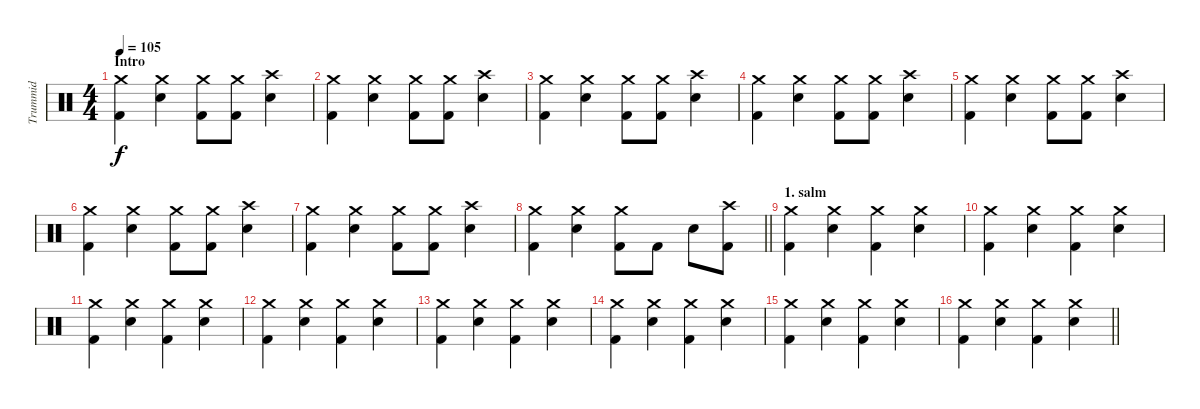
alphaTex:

\track ("Trummid" "Trummid") {instrument percussion}
\staff {score}
\articulation defaults
\ts (4 4)
\section ("" "Intro")
\tempo 105
\clef neutral
\ks c
("Crash medium (hit)" "Kick (hit) 2").4{dy f} ("Crash medium (hit)" "Electric Snare (hit)").4 ("Crash medium (hit)" "Kick (hit) 2").8 ("Crash medium (hit)" "Kick (hit) 2").8 ("Crash high (hit)" "Electric Snare (hit)").4 |
("Crash medium (hit)" "Kick (hit) 2").4 ("Crash medium (hit)" "Electric Snare (hit)").4 ("Crash medium (hit)" "Kick (hit) 2").8 ("Crash medium (hit)" "Kick (hit) 2").8 ("Crash high (hit)" "Electric Snare (hit)").4 |
("Crash medium (hit)" "Kick (hit) 2").4 ("Crash medium (hit)" "Electric Snare (hit)").4 ("Crash medium (hit)" "Kick (hit) 2").8 ("Crash medium (hit)" "Kick (hit) 2").8 ("Crash high (hit)" "Electric Snare (hit)").4 |
("Crash medium (hit)" "Kick (hit) 2").4 ("Crash medium (hit)" "Electric Snare (hit)").4 ("Crash medium (hit)" "Kick (hit) 2").8 ("Crash medium (hit)" "Kick (hit) 2").8 ("Crash high (hit)" "Electric Snare (hit)").4 |
("Crash medium (hit)" "Kick (hit) 2").4 ("Crash medium (hit)" "Electric Snare (hit)").4 ("Crash medium (hit)" "Kick (hit) 2").8 ("Crash medium (hit)" "Kick (hit) 2").8 ("Crash high (hit)" "Electric Snare (hit)").4 |
("Crash medium (hit)" "Kick (hit) 2").4 ("Crash medium (hit)" "Electric Snare (hit)").4 ("Crash medium (hit)" "Kick (hit) 2").8 ("Crash medium (hit)" "Kick (hit) 2").8 ("Crash high (hit)" "Electric Snare (hit)").4 |
("Crash medium (hit)" "Kick (hit) 2").4 ("Crash medium (hit)" "Electric Snare (hit)").4 ("Crash medium (hit)" "Kick (hit) 2").8 ("Crash medium (hit)" "Kick (hit) 2").8 ("Crash high (hit)" "Electric Snare (hit)").4 |
\barLineRight lightlight
("Crash medium (hit)" "Kick (hit) 2").4 ("Crash medium (hit)" "Electric Snare (hit)").4 ("Crash medium (hit)" "Kick (hit) 2").8 "Kick (hit) 2".8 "Electric Snare (hit)".8 ("Crash high (hit)" "Kick (hit) 2").8 |
\section ("" "1. salm")
("Crash medium (hit)" "Kick (hit) 2").4 ("Crash medium (hit)" "Electric Snare (hit)").4 ("Crash medium (hit)" "Kick (hit) 2").4 ("Crash medium (hit)" "Electric Snare (hit)").4 |
("Crash medium (hit)" "Kick (hit) 2").4 ("Crash medium (hit)" "Electric Snare (hit)").4 ("Crash medium (hit)" "Kick (hit) 2").4 ("Crash medium (hit)" "Electric Snare (hit)").4 |
("Crash medium (hit)" "Kick (hit) 2").4 ("Crash medium (hit)" "Electric Snare (hit)").4 ("Crash medium (hit)" "Kick (hit) 2").4 ("Crash medium (hit)" "Electric Snare (hit)").4 |
("Crash medium (hit)" "Kick (hit) 2").4 ("Crash medium (hit)" "Electric Snare (hit)").4 ("Crash medium (hit)" "Kick (hit) 2").4 ("Crash medium (hit)" "Electric Snare (hit)").4 |
("Crash medium (hit)" "Kick (hit) 2").4 ("Crash medium (hit)" "Electric Snare (hit)").4 ("Crash medium (hit)" "Kick (hit) 2").4 ("Crash medium (hit)" "Electric Snare (hit)").4 |
("Crash medium (hit)" "Kick (hit) 2").4 ("Crash medium (hit)" "Electric Snare (hit)").4 ("Crash medium (hit)" "Kick (hit) 2").4 ("Crash medium (hit)" "Electric Snare (hit)").4 |
("Crash medium (hit)" "Kick (hit) 2").4 ("Crash medium (hit)" "Electric Snare (hit)").4 ("Crash medium (hit)" "Kick (hit) 2").4 ("Crash medium (hit)" "Electric Snare (hit)").4 |
\barLineRight lightlight
("Crash medium (hit)" "Kick (hit) 2").4 ("Crash medium (hit)" "Electric Snare (hit)").4 ("Crash medium (hit)" "Kick (hit) 2").4 ("Crash medium (hit)" "Electric Snare (hit)").4
